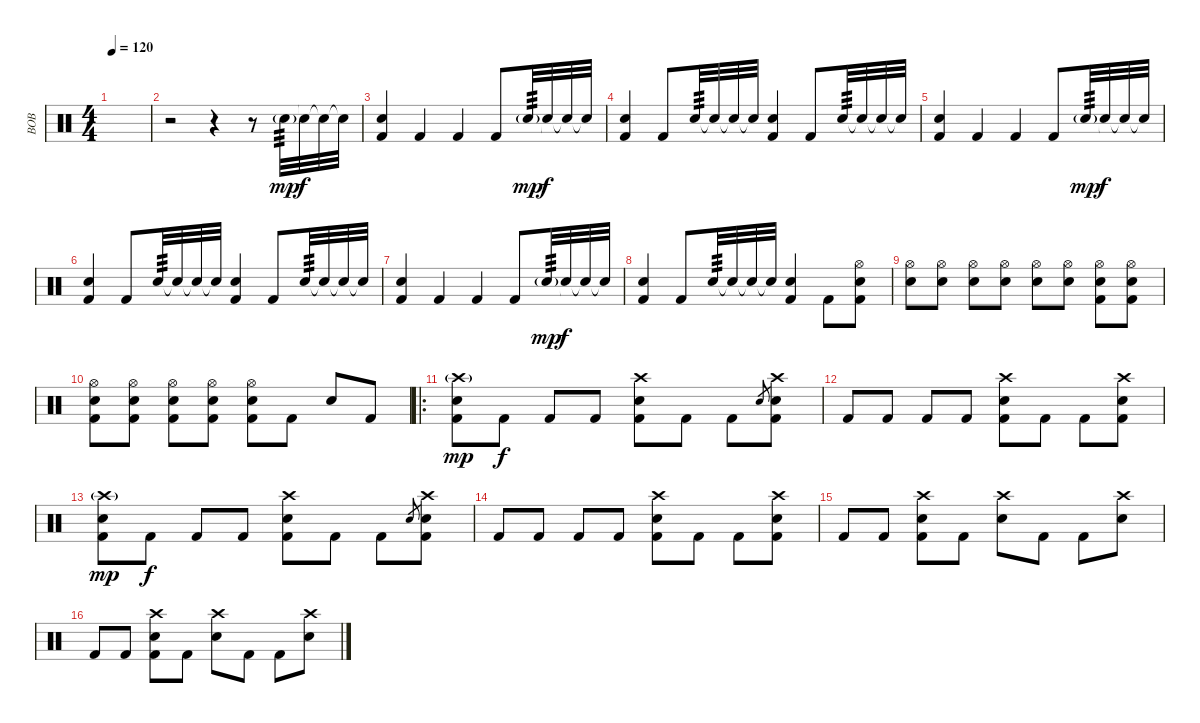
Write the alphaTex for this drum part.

\track ("BOB" "BOB") {instrument percussion}
\staff {score}
\articulation defaults
\ts (4 4)
\tempo 120
\clef neutral
\ks c
|
r.2 r.4 r.8 "Electric Snare (hit)"{g}.32{tp 3 dy mp} "Electric Snare (hit)"{t}.32{dy f} "Electric Snare (hit)"{t}.32 "Electric Snare (hit)"{t}.32 |
("Electric Snare (hit)" "Kick (hit) 2").4 "Kick (hit) 2".4 "Kick (hit) 2".4 "Kick (hit) 2".8 "Electric Snare (hit)"{g}.32{tp 3 dy mp} "Electric Snare (hit)"{t}.32{dy f} "Electric Snare (hit)"{t}.32 "Electric Snare (hit)"{t}.32 |
("Electric Snare (hit)" "Kick (hit) 2").4 "Kick (hit) 2".8 "Electric Snare (hit)".32{tp 3} "Electric Snare (hit)"{t}.32 "Electric Snare (hit)"{t}.32 "Electric Snare (hit)"{t}.32 ("Electric Snare (hit)" "Kick (hit) 2").4 "Kick (hit) 2".8 "Electric Snare (hit)".32{tp 3} "Electric Snare (hit)"{t}.32 "Electric Snare (hit)"{t}.32 "Electric Snare (hit)"{t}.32 |
("Electric Snare (hit)" "Kick (hit) 2").4 "Kick (hit) 2".4 "Kick (hit) 2".4 "Kick (hit) 2".8 "Electric Snare (hit)"{g}.32{tp 3 dy mp} "Electric Snare (hit)"{t}.32{dy f} "Electric Snare (hit)"{t}.32 "Electric Snare (hit)"{t}.32 |
("Electric Snare (hit)" "Kick (hit) 2").4 "Kick (hit) 2".8 "Electric Snare (hit)".32{tp 3} "Electric Snare (hit)"{t}.32 "Electric Snare (hit)"{t}.32 "Electric Snare (hit)"{t}.32 ("Electric Snare (hit)" "Kick (hit) 2").4 "Kick (hit) 2".8 "Electric Snare (hit)".32{tp 3} "Electric Snare (hit)"{t}.32 "Electric Snare (hit)"{t}.32 "Electric Snare (hit)"{t}.32 |
("Electric Snare (hit)" "Kick (hit) 2").4 "Kick (hit) 2".4 "Kick (hit) 2".4 "Kick (hit) 2".8 "Electric Snare (hit)"{g}.32{tp 3 dy mp} "Electric Snare (hit)"{t}.32{dy f} "Electric Snare (hit)"{t}.32 "Electric Snare (hit)"{t}.32 |
("Electric Snare (hit)" "Kick (hit) 2").4 "Kick (hit) 2".8 "Electric Snare (hit)".32{tp 3} "Electric Snare (hit)"{t}.32 "Electric Snare (hit)"{t}.32 "Electric Snare (hit)"{t}.32 ("Electric Snare (hit)" "Kick (hit) 2").4 "Kick (hit) 2".8 ("Hi-Hat (open)" "Electric Snare (hit)" "Kick (hit) 2").8 |
("Hi-Hat (open)" "Electric Snare (hit)").8{volume 7} ("Hi-Hat (open)" "Electric Snare (hit)").8{volume 13} ("Hi-Hat (open)" "Electric Snare (hit)").8 ("Hi-Hat (open)" "Electric Snare (hit)").8 ("Hi-Hat (open)" "Electric Snare (hit)").8 ("Hi-Hat (open)" "Electric Snare (hit)").8 ("Hi-Hat (open)" "Electric Snare (hit)" "Kick (hit) 2").8 ("Hi-Hat (open)" "Electric Snare (hit)" "Kick (hit) 2").8 |
("Hi-Hat (open)" "Electric Snare (hit)" "Kick (hit) 2").8 ("Hi-Hat (open)" "Electric Snare (hit)" "Kick (hit) 2").8 ("Hi-Hat (open)" "Electric Snare (hit)" "Kick (hit) 2").8 ("Hi-Hat (open)" "Electric Snare (hit)" "Kick (hit) 2").8 ("Hi-Hat (open)" "Electric Snare (hit)" "Kick (hit) 2").8 "Kick (hit) 2".8 "Electric Snare (hit)".8 "Kick (hit) 2".8 |
\ro
("Crash high (hit)"{g} "Electric Snare (hit)" "Kick (hit) 2").8{dy mp} "Kick (hit) 2".8{dy f} "Kick (hit) 2".8 "Kick (hit) 2".8 ("Crash high (hit)" "Electric Snare (hit)" "Kick (hit) 2").8 "Kick (hit) 2".8 "Kick (hit) 2".8 "Electric Snare (hit)".8{gr} ("Crash high (hit)" "Electric Snare (hit)" "Kick (hit) 2").8 |
"Kick (hit) 2".8 "Kick (hit) 2".8 "Kick (hit) 2".8 "Kick (hit) 2".8 ("Crash high (hit)" "Electric Snare (hit)" "Kick (hit) 2").8 "Kick (hit) 2".8 "Kick (hit) 2".8 ("Crash high (hit)" "Electric Snare (hit)" "Kick (hit) 2").8 |
("Crash high (hit)"{g} "Electric Snare (hit)" "Kick (hit) 2").8{dy mp} "Kick (hit) 2".8{dy f} "Kick (hit) 2".8 "Kick (hit) 2".8 ("Crash high (hit)" "Electric Snare (hit)" "Kick (hit) 2").8 "Kick (hit) 2".8 "Kick (hit) 2".8 "Electric Snare (hit)".8{gr} ("Crash high (hit)" "Electric Snare (hit)" "Kick (hit) 2").8 |
"Kick (hit) 2".8 "Kick (hit) 2".8 "Kick (hit) 2".8 "Kick (hit) 2".8 ("Crash high (hit)" "Electric Snare (hit)" "Kick (hit) 2").8 "Kick (hit) 2".8 "Kick (hit) 2".8 ("Crash high (hit)" "Electric Snare (hit)" "Kick (hit) 2").8 |
"Kick (hit) 2".8 "Kick (hit) 2".8 ("Crash high (hit)" "Electric Snare (hit)" "Kick (hit) 2").8 "Kick (hit) 2".8 ("Crash high (hit)" "Electric Snare (hit)").8 "Kick (hit) 2".8 "Kick (hit) 2".8 ("Crash high (hit)" "Electric Snare (hit)").8 |
"Kick (hit) 2".8 "Kick (hit) 2".8 ("Crash high (hit)" "Electric Snare (hit)" "Kick (hit) 2").8 "Kick (hit) 2".8 ("Crash high (hit)" "Electric Snare (hit)").8 "Kick (hit) 2".8 "Kick (hit) 2".8 ("Crash high (hit)" "Electric Snare (hit)").8
